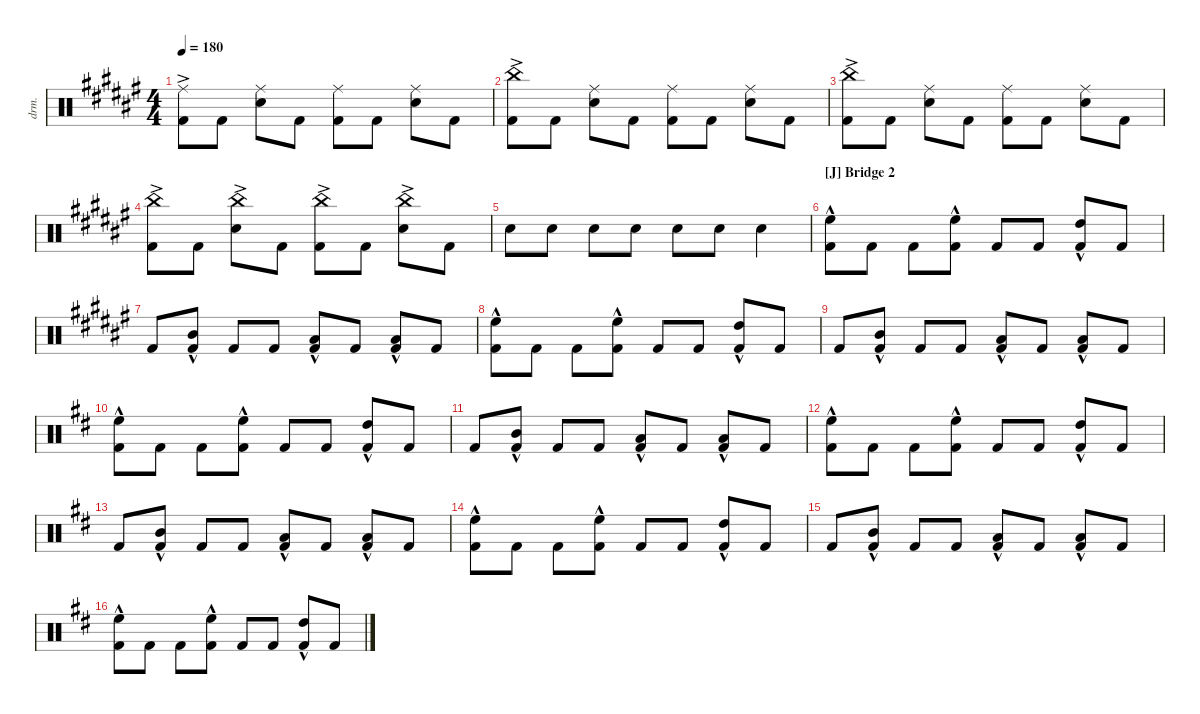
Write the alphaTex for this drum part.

\defaultSystemsLayout 4
\hideDynamics
\bracketExtendMode nobrackets
\otherSystemsTrackNameOrientation horizontal
\track ("Drum" "drm.") {instrument percussion}
\staff {score}
\articulation defaults
\ts (4 4)
\tempo 180
\clef neutral
\ks f#
("Kick (hit) 2"{ac acc forcenatural} "Ride (middle)"{acc forcenatural}).8{dy f beam Down} "Kick (hit) 2"{acc forcenatural}.8{beam Down} ("Snare (hit) 2"{acc forcenatural} "Ride (middle)"{acc forcenatural}).8{beam Down} "Kick (hit) 2"{acc forcenatural}.8{beam Down} ("Kick (hit) 2"{acc forcenatural} "Ride (middle)"{acc forcenatural}).8{beam Down} "Kick (hit) 2"{acc forcenatural}.8{beam Down} ("Snare (hit) 2"{acc forcenatural} "Ride (middle)"{acc forcenatural}).8{beam Down} "Kick (hit) 2"{acc forcenatural}.8{beam Down} |
("Kick (hit) 2"{ac acc forcenatural} "China (hit)"{acc forcenatural}).8{beam Down} "Kick (hit) 2"{acc forcenatural}.8{beam Down} ("Snare (hit) 2"{acc forcenatural} "Ride (middle)"{acc forcenatural}).8{beam Down} "Kick (hit) 2"{acc forcenatural}.8{beam Down} ("Kick (hit) 2"{acc forcenatural} "Ride (middle)"{acc forcenatural}).8{beam Down} "Kick (hit) 2"{acc forcenatural}.8{beam Down} ("Snare (hit) 2"{acc forcenatural} "Ride (middle)"{acc forcenatural}).8{beam Down} "Kick (hit) 2"{acc forcenatural}.8{beam Down} |
("Kick (hit) 2"{ac acc forcenatural} "China (hit)"{acc forcenatural}).8{beam Down} "Kick (hit) 2"{acc forcenatural}.8{beam Down} ("Snare (hit) 2"{acc forcenatural} "Ride (middle)"{acc forcenatural}).8{beam Down} "Kick (hit) 2"{acc forcenatural}.8{beam Down} ("Kick (hit) 2"{acc forcenatural} "Ride (middle)"{acc forcenatural}).8{beam Down} "Kick (hit) 2"{acc forcenatural}.8{beam Down} ("Snare (hit) 2"{acc forcenatural} "Ride (middle)"{acc forcenatural}).8{beam Down} "Kick (hit) 2"{acc forcenatural}.8{beam Down} |
("Kick (hit) 2"{ac acc forcenatural} "China (hit)"{acc forcenatural}).8{beam Down} "Kick (hit) 2"{acc forcenatural}.8{beam Down} ("Snare (hit) 2"{ac acc forcenatural} "China (hit)"{acc forcenatural}).8{beam Down} "Kick (hit) 2"{acc forcenatural}.8{beam Down} ("Kick (hit) 2"{ac acc forcenatural} "China (hit)"{acc forcenatural}).8{beam Down} "Kick (hit) 2"{acc forcenatural}.8{beam Down} ("Snare (hit) 2"{ac acc forcenatural} "China (hit)"{acc forcenatural}).8{beam Down} "Kick (hit) 2"{acc forcenatural}.8{beam Down} |
"Snare (hit) 2"{acc forcenatural}.8{beam Down} "Snare (hit) 2"{acc forcenatural}.8{beam Down} "Snare (hit) 2"{acc forcenatural}.8{beam Down} "Snare (hit) 2"{acc forcenatural}.8{beam Down} "Snare (hit) 2"{acc forcenatural}.8{beam Down} "Snare (hit) 2"{acc forcenatural}.8{beam Down} "Snare (hit) 2"{acc forcenatural}.4{beam Down} |
\section ("J" "Bridge 2")
("Kick (hit) 2"{hac acc forcenatural} "High Floor Tom (hit)"{hac acc forcenatural}).8{beam Down} "Kick (hit) 2"{acc forcenatural}.8{beam Down} "Kick (hit) 2"{acc forcenatural}.8{beam Down} ("Kick (hit) 2"{hac acc forcenatural} "High Floor Tom (hit)"{hac acc forcenatural}).8{beam Down} "Kick (hit) 2"{acc forcenatural}.8{beam Up} "Kick (hit) 2"{acc forcenatural}.8{beam Up} ("Kick (hit) 2"{hac acc forcenatural} "High Tom (hit)"{hac acc forcenatural}).8{beam Up} "Kick (hit) 2"{acc forcenatural}.8{beam Up} |
"Kick (hit) 2"{acc forcenatural}.8{beam Up} ("Kick (hit) 2"{hac acc forcenatural} "Mid Tom (hit)"{hac acc forcenatural}).8{beam Up} "Kick (hit) 2"{acc forcenatural}.8{beam Up} "Kick (hit) 2"{acc forcenatural}.8{beam Up} ("Kick (hit) 2"{hac acc forcenatural} "Low Tom (hit)"{hac acc forcenatural}).8{beam Up} "Kick (hit) 2"{acc forcenatural}.8{beam Up} ("Kick (hit) 2"{hac acc forcenatural} "Low Tom (hit)"{hac acc forcenatural}).8{beam Up} "Kick (hit) 2"{acc forcenatural}.8{beam Up} |
("Kick (hit) 2"{hac acc forcenatural} "High Floor Tom (hit)"{hac acc forcenatural}).8{beam Down} "Kick (hit) 2"{acc forcenatural}.8{beam Down} "Kick (hit) 2"{acc forcenatural}.8{beam Down} ("Kick (hit) 2"{hac acc forcenatural} "High Floor Tom (hit)"{hac acc forcenatural}).8{beam Down} "Kick (hit) 2"{acc forcenatural}.8{beam Up} "Kick (hit) 2"{acc forcenatural}.8{beam Up} ("Kick (hit) 2"{hac acc forcenatural} "High Tom (hit)"{hac acc forcenatural}).8{beam Up} "Kick (hit) 2"{acc forcenatural}.8{beam Up} |
"Kick (hit) 2"{acc forcenatural}.8{beam Up} ("Kick (hit) 2"{hac acc forcenatural} "Mid Tom (hit)"{hac acc forcenatural}).8{beam Up} "Kick (hit) 2"{acc forcenatural}.8{beam Up} "Kick (hit) 2"{acc forcenatural}.8{beam Up} ("Kick (hit) 2"{hac acc forcenatural} "Low Tom (hit)"{hac acc forcenatural}).8{beam Up} "Kick (hit) 2"{acc forcenatural}.8{beam Up} ("Kick (hit) 2"{hac acc forcenatural} "Low Tom (hit)"{hac acc forcenatural}).8{beam Up} "Kick (hit) 2"{acc forcenatural}.8{beam Up} |
\ks d
("Kick (hit) 2"{hac acc forcenatural} "High Floor Tom (hit)"{hac acc forcenatural}).8{beam Down} "Kick (hit) 2"{acc forcenatural}.8{beam Down} "Kick (hit) 2"{acc forcenatural}.8{beam Down} ("Kick (hit) 2"{hac acc forcenatural} "High Floor Tom (hit)"{hac acc forcenatural}).8{beam Down} "Kick (hit) 2"{acc forcenatural}.8{beam Up} "Kick (hit) 2"{acc forcenatural}.8{beam Up} ("Kick (hit) 2"{hac acc forcenatural} "High Tom (hit)"{hac acc forcenatural}).8{beam Up} "Kick (hit) 2"{acc forcenatural}.8{beam Up} |
"Kick (hit) 2"{acc forcenatural}.8{beam Up} ("Kick (hit) 2"{hac acc forcenatural} "Mid Tom (hit)"{hac acc forcenatural}).8{beam Up} "Kick (hit) 2"{acc forcenatural}.8{beam Up} "Kick (hit) 2"{acc forcenatural}.8{beam Up} ("Kick (hit) 2"{hac acc forcenatural} "Low Tom (hit)"{hac acc forcenatural}).8{beam Up} "Kick (hit) 2"{acc forcenatural}.8{beam Up} ("Kick (hit) 2"{hac acc forcenatural} "Low Tom (hit)"{hac acc forcenatural}).8{beam Up} "Kick (hit) 2"{acc forcenatural}.8{beam Up} |
("Kick (hit) 2"{hac acc forcenatural} "High Floor Tom (hit)"{hac acc forcenatural}).8{beam Down} "Kick (hit) 2"{acc forcenatural}.8{beam Down} "Kick (hit) 2"{acc forcenatural}.8{beam Down} ("Kick (hit) 2"{hac acc forcenatural} "High Floor Tom (hit)"{hac acc forcenatural}).8{beam Down} "Kick (hit) 2"{acc forcenatural}.8{beam Up} "Kick (hit) 2"{acc forcenatural}.8{beam Up} ("Kick (hit) 2"{hac acc forcenatural} "High Tom (hit)"{hac acc forcenatural}).8{beam Up} "Kick (hit) 2"{acc forcenatural}.8{beam Up} |
"Kick (hit) 2"{acc forcenatural}.8{beam Up} ("Kick (hit) 2"{hac acc forcenatural} "Mid Tom (hit)"{hac acc forcenatural}).8{beam Up} "Kick (hit) 2"{acc forcenatural}.8{beam Up} "Kick (hit) 2"{acc forcenatural}.8{beam Up} ("Kick (hit) 2"{hac acc forcenatural} "Low Tom (hit)"{hac acc forcenatural}).8{beam Up} "Kick (hit) 2"{acc forcenatural}.8{beam Up} ("Kick (hit) 2"{hac acc forcenatural} "Low Tom (hit)"{hac acc forcenatural}).8{beam Up} "Kick (hit) 2"{acc forcenatural}.8{beam Up} |
("Kick (hit) 2"{hac acc forcenatural} "High Floor Tom (hit)"{hac acc forcenatural}).8{beam Down} "Kick (hit) 2"{acc forcenatural}.8{beam Down} "Kick (hit) 2"{acc forcenatural}.8{beam Down} ("Kick (hit) 2"{hac acc forcenatural} "High Floor Tom (hit)"{hac acc forcenatural}).8{beam Down} "Kick (hit) 2"{acc forcenatural}.8{beam Up} "Kick (hit) 2"{acc forcenatural}.8{beam Up} ("Kick (hit) 2"{hac acc forcenatural} "High Tom (hit)"{hac acc forcenatural}).8{beam Up} "Kick (hit) 2"{acc forcenatural}.8{beam Up} |
"Kick (hit) 2"{acc forcenatural}.8{beam Up} ("Kick (hit) 2"{hac acc forcenatural} "Mid Tom (hit)"{hac acc forcenatural}).8{beam Up} "Kick (hit) 2"{acc forcenatural}.8{beam Up} "Kick (hit) 2"{acc forcenatural}.8{beam Up} ("Kick (hit) 2"{hac acc forcenatural} "Low Tom (hit)"{hac acc forcenatural}).8{beam Up} "Kick (hit) 2"{acc forcenatural}.8{beam Up} ("Kick (hit) 2"{hac acc forcenatural} "Low Tom (hit)"{hac acc forcenatural}).8{beam Up} "Kick (hit) 2"{acc forcenatural}.8{beam Up} |
("Kick (hit) 2"{hac acc forcenatural} "High Floor Tom (hit)"{hac acc forcenatural}).8{beam Down} "Kick (hit) 2"{acc forcenatural}.8{beam Down} "Kick (hit) 2"{acc forcenatural}.8{beam Down} ("Kick (hit) 2"{hac acc forcenatural} "High Floor Tom (hit)"{hac acc forcenatural}).8{beam Down} "Kick (hit) 2"{acc forcenatural}.8{beam Up} "Kick (hit) 2"{acc forcenatural}.8{beam Up} ("Kick (hit) 2"{hac acc forcenatural} "High Tom (hit)"{hac acc forcenatural}).8{beam Up} "Kick (hit) 2"{acc forcenatural}.8{beam Up}
